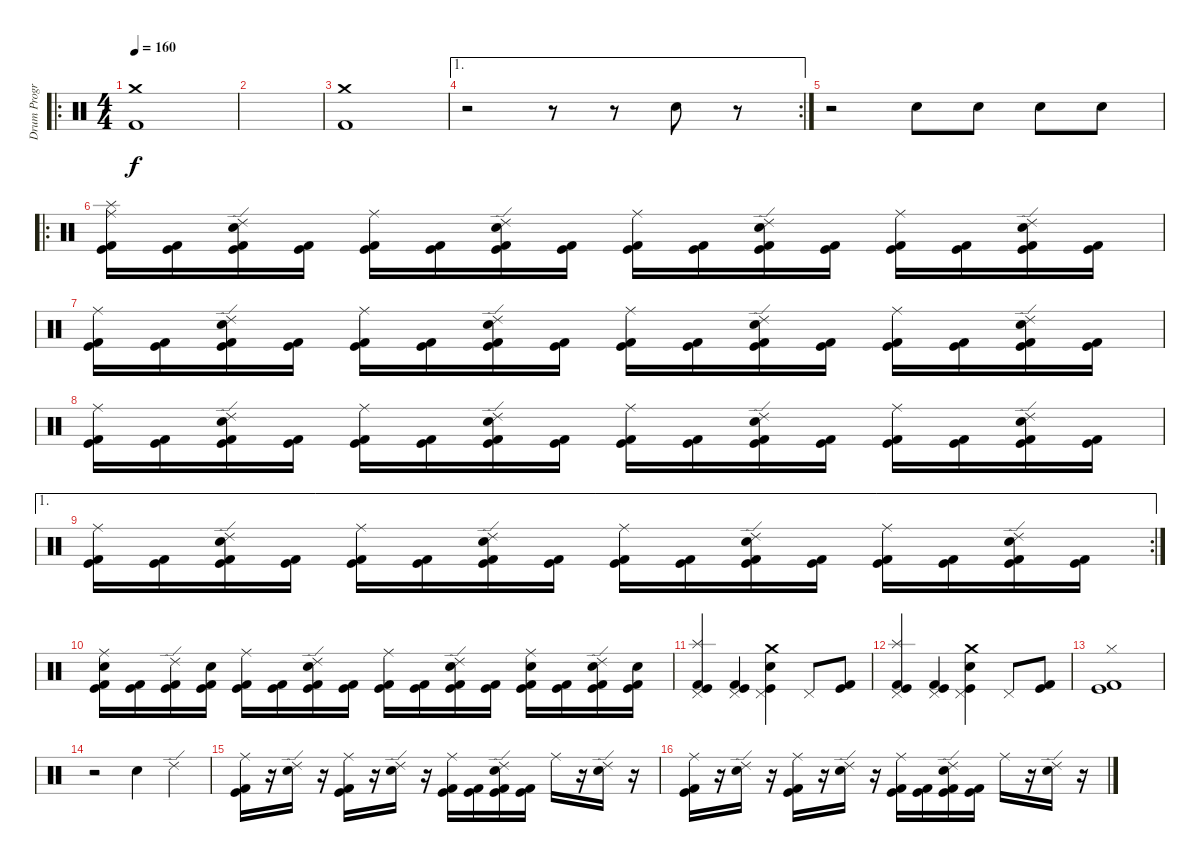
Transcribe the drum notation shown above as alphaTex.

\track ("Drum Program - BG" "Drum Progr") {instrument percussion}
\staff {score}
\articulation defaults
\ro
\ts (4 4)
\tempo 160
\clef neutral
\ks c
("Kick (hit) 2" "Crash medium (hit)").1{dy f} |
|
("Kick (hit) 2" "Crash medium (hit)").1 |
\ae 1
\rc 2
r.2 r.8 r.8 "Electric Snare (hit)".8 r.8 |
r.2 "Electric Snare (hit)".8 "Electric Snare (hit)".8 "Electric Snare (hit)".8 "Electric Snare (hit)".8 |
\ro
("Kick (hit)" "Kick (hit) 2" "Splash (hit)" "Ride (middle)").16 ("Kick (hit)" "Kick (hit) 2").16 ("Kick (hit)" "Kick (hit) 2" "Electric Snare (hit)" "Ride (edge) 2").16 ("Kick (hit)" "Kick (hit) 2").16 ("Kick (hit)" "Kick (hit) 2" "Ride (middle)").16 ("Kick (hit)" "Kick (hit) 2").16 ("Kick (hit)" "Kick (hit) 2" "Electric Snare (hit)" "Ride (edge) 2").16 ("Kick (hit)" "Kick (hit) 2").16 ("Kick (hit)" "Kick (hit) 2" "Ride (middle)").16 ("Kick (hit)" "Kick (hit) 2").16 ("Kick (hit)" "Kick (hit) 2" "Electric Snare (hit)" "Ride (edge) 2").16 ("Kick (hit)" "Kick (hit) 2").16 ("Kick (hit)" "Kick (hit) 2" "Ride (middle)").16 ("Kick (hit)" "Kick (hit) 2").16 ("Kick (hit)" "Kick (hit) 2" "Electric Snare (hit)" "Ride (edge) 2").16 ("Kick (hit)" "Kick (hit) 2").16 |
("Kick (hit)" "Kick (hit) 2" "Ride (middle)").16 ("Kick (hit)" "Kick (hit) 2").16 ("Kick (hit)" "Kick (hit) 2" "Electric Snare (hit)" "Ride (edge) 2").16 ("Kick (hit)" "Kick (hit) 2").16 ("Kick (hit)" "Kick (hit) 2" "Ride (middle)").16 ("Kick (hit)" "Kick (hit) 2").16 ("Kick (hit)" "Kick (hit) 2" "Electric Snare (hit)" "Ride (edge) 2").16 ("Kick (hit)" "Kick (hit) 2").16 ("Kick (hit)" "Kick (hit) 2" "Ride (middle)").16 ("Kick (hit)" "Kick (hit) 2").16 ("Kick (hit)" "Kick (hit) 2" "Electric Snare (hit)" "Ride (edge) 2").16 ("Kick (hit)" "Kick (hit) 2").16 ("Kick (hit)" "Kick (hit) 2" "Ride (middle)").16 ("Kick (hit)" "Kick (hit) 2").16 ("Kick (hit)" "Kick (hit) 2" "Electric Snare (hit)" "Ride (edge) 2").16 ("Kick (hit)" "Kick (hit) 2").16 |
("Kick (hit)" "Kick (hit) 2" "Ride (middle)").16 ("Kick (hit)" "Kick (hit) 2").16 ("Kick (hit)" "Kick (hit) 2" "Electric Snare (hit)" "Ride (edge) 2").16 ("Kick (hit)" "Kick (hit) 2").16 ("Kick (hit)" "Kick (hit) 2" "Ride (middle)").16 ("Kick (hit)" "Kick (hit) 2").16 ("Kick (hit)" "Kick (hit) 2" "Electric Snare (hit)" "Ride (edge) 2").16 ("Kick (hit)" "Kick (hit) 2").16 ("Kick (hit)" "Kick (hit) 2" "Ride (middle)").16 ("Kick (hit)" "Kick (hit) 2").16 ("Kick (hit)" "Kick (hit) 2" "Electric Snare (hit)" "Ride (edge) 2").16 ("Kick (hit)" "Kick (hit) 2").16 ("Kick (hit)" "Kick (hit) 2" "Ride (middle)").16 ("Kick (hit)" "Kick (hit) 2").16 ("Kick (hit)" "Kick (hit) 2" "Electric Snare (hit)" "Ride (edge) 2").16 ("Kick (hit)" "Kick (hit) 2").16 |
\ae 1
\rc 2
("Kick (hit)" "Kick (hit) 2" "Ride (middle)").16 ("Kick (hit)" "Kick (hit) 2").16 ("Kick (hit)" "Kick (hit) 2" "Electric Snare (hit)" "Ride (edge) 2").16 ("Kick (hit)" "Kick (hit) 2").16 ("Kick (hit)" "Kick (hit) 2" "Ride (middle)").16 ("Kick (hit)" "Kick (hit) 2").16 ("Kick (hit)" "Kick (hit) 2" "Electric Snare (hit)" "Ride (edge) 2").16 ("Kick (hit)" "Kick (hit) 2").16 ("Kick (hit)" "Kick (hit) 2" "Ride (middle)").16 ("Kick (hit)" "Kick (hit) 2").16 ("Kick (hit)" "Kick (hit) 2" "Electric Snare (hit)" "Ride (edge) 2").16 ("Kick (hit)" "Kick (hit) 2").16 ("Kick (hit)" "Kick (hit) 2" "Ride (middle)").16 ("Kick (hit)" "Kick (hit) 2").16 ("Kick (hit)" "Kick (hit) 2" "Electric Snare (hit)" "Ride (edge) 2").16 ("Kick (hit)" "Kick (hit) 2").16 |
("Kick (hit)" "Kick (hit) 2" "Electric Snare (hit)" "Ride (middle)").16 ("Kick (hit)" "Kick (hit) 2").16 ("Kick (hit)" "Kick (hit) 2" "Ride (edge) 2").16 ("Kick (hit)" "Kick (hit) 2" "Electric Snare (hit)").16 ("Kick (hit)" "Kick (hit) 2" "Ride (middle)").16 ("Kick (hit)" "Kick (hit) 2").16 ("Kick (hit)" "Kick (hit) 2" "Electric Snare (hit)" "Ride (edge) 2").16 ("Kick (hit)" "Kick (hit) 2").16 ("Kick (hit)" "Kick (hit) 2" "Ride (middle)").16 ("Kick (hit)" "Kick (hit) 2").16 ("Kick (hit)" "Kick (hit) 2" "Electric Snare (hit)" "Ride (edge) 2").16 ("Kick (hit)" "Kick (hit) 2").16 ("Kick (hit)" "Kick (hit) 2" "Electric Snare (hit)" "Ride (middle)").16 ("Kick (hit)" "Kick (hit) 2").16 ("Kick (hit)" "Kick (hit) 2" "Electric Snare (hit)" "Ride (edge) 2").16 ("Kick (hit)" "Kick (hit) 2" "Electric Snare (hit)").16 |
("Kick (hit) 2" "Kick (hit)" "Splash (hit)" "Pedal Hi-Hat (hit)").4 ("Kick (hit) 2" "Kick (hit)" "Pedal Hi-Hat (hit)").4 ("Crash medium (hit)" "Kick (hit)" "Electric Snare (hit)" "Pedal Hi-Hat (hit)").4 "Pedal Hi-Hat (hit)".8 ("Kick (hit)" "Kick (hit) 2").8 |
("Kick (hit) 2" "Kick (hit)" "Splash (hit)" "Pedal Hi-Hat (hit)").4 ("Kick (hit) 2" "Kick (hit)" "Pedal Hi-Hat (hit)").4 ("Crash medium (hit)" "Kick (hit)" "Electric Snare (hit)" "Pedal Hi-Hat (hit)").4 "Pedal Hi-Hat (hit)".8 ("Kick (hit)" "Kick (hit) 2").8 |
("Kick (hit) 2" "Kick (hit)" "Hi-Hat (closed)").1 |
r.2 "Electric Snare (hit)".4 "Ride (edge) 2".4 |
("Kick (hit) 2" "Kick (hit)" "Ride (middle)").16 r.16 ("Electric Snare (hit)" "Ride (edge) 2").16 r.16 ("Kick (hit)" "Kick (hit) 2" "Ride (middle)").16 r.16 ("Electric Snare (hit)" "Ride (edge) 2").16 r.16 ("Kick (hit)" "Kick (hit) 2" "Ride (middle)").16 ("Kick (hit)" "Kick (hit) 2").16 ("Kick (hit)" "Kick (hit) 2" "Electric Snare (hit)" "Ride (edge) 2").16 ("Kick (hit)" "Kick (hit) 2").16 "Ride (middle)".16 r.16 ("Electric Snare (hit)" "Ride (edge) 2").16 r.16 |
("Kick (hit) 2" "Kick (hit)" "Ride (middle)").16 r.16 ("Electric Snare (hit)" "Ride (edge) 2").16 r.16 ("Kick (hit)" "Kick (hit) 2" "Ride (middle)").16 r.16 ("Electric Snare (hit)" "Ride (edge) 2").16 r.16 ("Kick (hit)" "Kick (hit) 2" "Ride (middle)").16 ("Kick (hit)" "Kick (hit) 2").16 ("Kick (hit)" "Kick (hit) 2" "Electric Snare (hit)" "Ride (edge) 2").16 ("Kick (hit)" "Kick (hit) 2").16 "Ride (middle)".16 r.16 ("Electric Snare (hit)" "Ride (edge) 2").16 r.16
